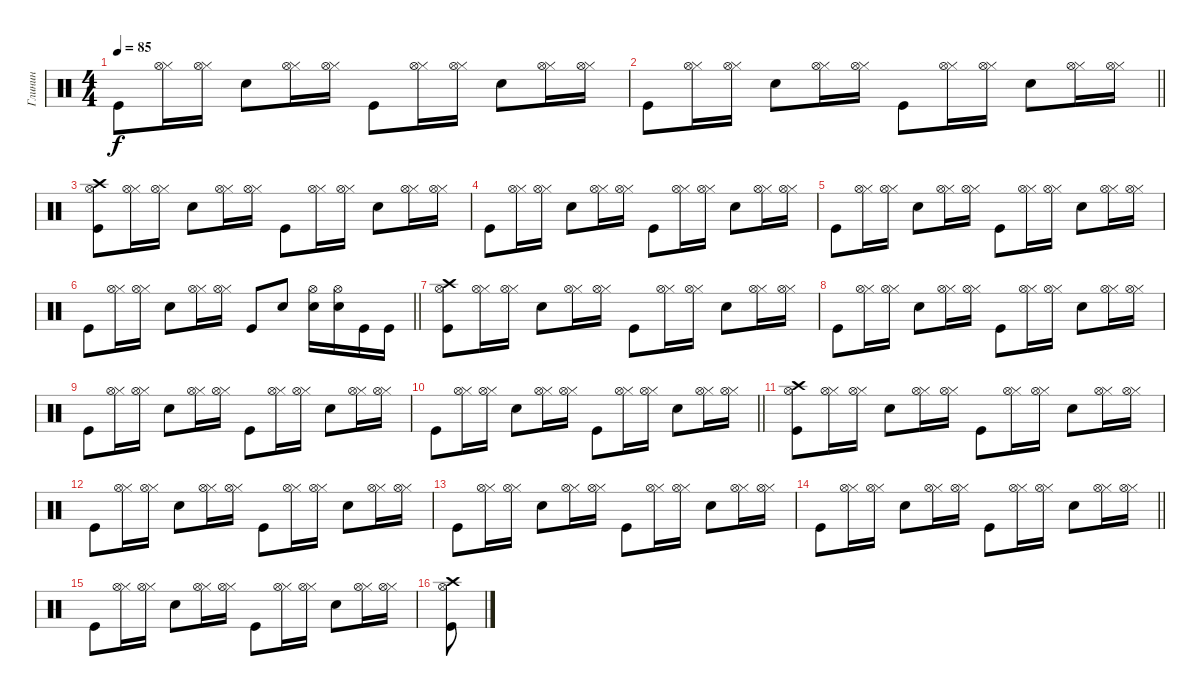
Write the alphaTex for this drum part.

\track ("Глинин" "Глинин") {instrument percussion}
\staff {score}
\articulation defaults
\ts (4 4)
\tempo 85
\clef neutral
\ks c "Kick (hit)".8{dy f}
("Hi-Hat (closed)" "Hi-Hat (open)").16 ("Hi-Hat (closed)" "Hi-Hat (open)").16 "Snare (hit) 2".8 ("Hi-Hat (closed)" "Hi-Hat (open)").16 ("Hi-Hat (closed)" "Hi-Hat (open)").16 "Kick (hit)".8 ("Hi-Hat (closed)" "Hi-Hat (open)").16 ("Hi-Hat (closed)" "Hi-Hat (open)").16 "Snare (hit) 2".8 ("Hi-Hat (closed)" "Hi-Hat (open)").16 ("Hi-Hat (closed)" "Hi-Hat (open)").16 |
\barLineRight lightlight "Kick (hit)".8
("Hi-Hat (closed)" "Hi-Hat (open)").16 ("Hi-Hat (closed)" "Hi-Hat (open)").16 "Snare (hit) 2".8 ("Hi-Hat (closed)" "Hi-Hat (open)").16 ("Hi-Hat (closed)" "Hi-Hat (open)").16 "Kick (hit)".8 ("Hi-Hat (closed)" "Hi-Hat (open)").16 ("Hi-Hat (closed)" "Hi-Hat (open)").16 "Snare (hit) 2".8 ("Hi-Hat (closed)" "Hi-Hat (open)").16 ("Hi-Hat (closed)" "Hi-Hat (open)").16 |
("Kick (hit)" "Hi-Hat (open)" "Crash high (hit)").8 ("Hi-Hat (closed)" "Hi-Hat (open)").16 ("Hi-Hat (closed)" "Hi-Hat (open)").16 "Snare (hit) 2".8 ("Hi-Hat (closed)" "Hi-Hat (open)").16 ("Hi-Hat (closed)" "Hi-Hat (open)").16 "Kick (hit)".8 ("Hi-Hat (closed)" "Hi-Hat (open)").16 ("Hi-Hat (closed)" "Hi-Hat (open)").16 "Snare (hit) 2".8 ("Hi-Hat (closed)" "Hi-Hat (open)").16 ("Hi-Hat (closed)" "Hi-Hat (open)").16 |
"Kick (hit)".8 ("Hi-Hat (closed)" "Hi-Hat (open)").16 ("Hi-Hat (closed)" "Hi-Hat (open)").16 "Snare (hit) 2".8 ("Hi-Hat (closed)" "Hi-Hat (open)").16 ("Hi-Hat (closed)" "Hi-Hat (open)").16 "Kick (hit)".8 ("Hi-Hat (closed)" "Hi-Hat (open)").16 ("Hi-Hat (closed)" "Hi-Hat (open)").16 "Snare (hit) 2".8 ("Hi-Hat (closed)" "Hi-Hat (open)").16 ("Hi-Hat (closed)" "Hi-Hat (open)").16 |
"Kick (hit)".8 ("Hi-Hat (closed)" "Hi-Hat (open)").16 ("Hi-Hat (closed)" "Hi-Hat (open)").16 "Snare (hit) 2".8 ("Hi-Hat (closed)" "Hi-Hat (open)").16 ("Hi-Hat (closed)" "Hi-Hat (open)").16 "Kick (hit)".8 ("Hi-Hat (closed)" "Hi-Hat (open)").16 ("Hi-Hat (closed)" "Hi-Hat (open)").16 "Snare (hit) 2".8 ("Hi-Hat (closed)" "Hi-Hat (open)").16 ("Hi-Hat (closed)" "Hi-Hat (open)").16 |
\barLineRight lightlight "Kick (hit)".8
("Hi-Hat (closed)" "Hi-Hat (open)").16 ("Hi-Hat (closed)" "Hi-Hat (open)").16 "Snare (hit) 2".8 ("Hi-Hat (closed)" "Hi-Hat (open)").16 ("Hi-Hat (closed)" "Hi-Hat (open)").16 "Kick (hit)".8 "Snare (hit) 2".8 ("Snare (hit) 2" "Hi-Hat (open)").16 ("Snare (hit) 2" "Hi-Hat (open)").16 "Kick (hit)".16 "Kick (hit)".16 |
("Kick (hit)" "Hi-Hat (open)" "Crash high (hit)").8 ("Hi-Hat (closed)" "Hi-Hat (open)").16 ("Hi-Hat (closed)" "Hi-Hat (open)").16 "Snare (hit) 2".8 ("Hi-Hat (closed)" "Hi-Hat (open)").16 ("Hi-Hat (closed)" "Hi-Hat (open)").16 "Kick (hit)".8 ("Hi-Hat (closed)" "Hi-Hat (open)").16 ("Hi-Hat (closed)" "Hi-Hat (open)").16 "Snare (hit) 2".8 ("Hi-Hat (closed)" "Hi-Hat (open)").16 ("Hi-Hat (closed)" "Hi-Hat (open)").16 |
"Kick (hit)".8 ("Hi-Hat (closed)" "Hi-Hat (open)").16 ("Hi-Hat (closed)" "Hi-Hat (open)").16 "Snare (hit) 2".8 ("Hi-Hat (closed)" "Hi-Hat (open)").16 ("Hi-Hat (closed)" "Hi-Hat (open)").16 "Kick (hit)".8 ("Hi-Hat (closed)" "Hi-Hat (open)").16 ("Hi-Hat (closed)" "Hi-Hat (open)").16 "Snare (hit) 2".8 ("Hi-Hat (closed)" "Hi-Hat (open)").16 ("Hi-Hat (closed)" "Hi-Hat (open)").16 |
"Kick (hit)".8 ("Hi-Hat (closed)" "Hi-Hat (open)").16 ("Hi-Hat (closed)" "Hi-Hat (open)").16 "Snare (hit) 2".8 ("Hi-Hat (closed)" "Hi-Hat (open)").16 ("Hi-Hat (closed)" "Hi-Hat (open)").16 "Kick (hit)".8 ("Hi-Hat (closed)" "Hi-Hat (open)").16 ("Hi-Hat (closed)" "Hi-Hat (open)").16 "Snare (hit) 2".8 ("Hi-Hat (closed)" "Hi-Hat (open)").16 ("Hi-Hat (closed)" "Hi-Hat (open)").16 |
\barLineRight lightlight "Kick (hit)".8
("Hi-Hat (closed)" "Hi-Hat (open)").16 ("Hi-Hat (closed)" "Hi-Hat (open)").16 "Snare (hit) 2".8 ("Hi-Hat (closed)" "Hi-Hat (open)").16 ("Hi-Hat (closed)" "Hi-Hat (open)").16 "Kick (hit)".8 ("Hi-Hat (closed)" "Hi-Hat (open)").16 ("Hi-Hat (closed)" "Hi-Hat (open)").16 "Snare (hit) 2".8 ("Hi-Hat (closed)" "Hi-Hat (open)").16 ("Hi-Hat (closed)" "Hi-Hat (open)").16 |
("Kick (hit)" "Hi-Hat (open)" "Crash high (hit)").8 ("Hi-Hat (closed)" "Hi-Hat (open)").16 ("Hi-Hat (closed)" "Hi-Hat (open)").16 "Snare (hit) 2".8 ("Hi-Hat (closed)" "Hi-Hat (open)").16 ("Hi-Hat (closed)" "Hi-Hat (open)").16 "Kick (hit)".8 ("Hi-Hat (closed)" "Hi-Hat (open)").16 ("Hi-Hat (closed)" "Hi-Hat (open)").16 "Snare (hit) 2".8 ("Hi-Hat (closed)" "Hi-Hat (open)").16 ("Hi-Hat (closed)" "Hi-Hat (open)").16 |
"Kick (hit)".8 ("Hi-Hat (closed)" "Hi-Hat (open)").16 ("Hi-Hat (closed)" "Hi-Hat (open)").16 "Snare (hit) 2".8 ("Hi-Hat (closed)" "Hi-Hat (open)").16 ("Hi-Hat (closed)" "Hi-Hat (open)").16 "Kick (hit)".8 ("Hi-Hat (closed)" "Hi-Hat (open)").16 ("Hi-Hat (closed)" "Hi-Hat (open)").16 "Snare (hit) 2".8 ("Hi-Hat (closed)" "Hi-Hat (open)").16 ("Hi-Hat (closed)" "Hi-Hat (open)").16 |
"Kick (hit)".8 ("Hi-Hat (closed)" "Hi-Hat (open)").16 ("Hi-Hat (closed)" "Hi-Hat (open)").16 "Snare (hit) 2".8 ("Hi-Hat (closed)" "Hi-Hat (open)").16 ("Hi-Hat (closed)" "Hi-Hat (open)").16 "Kick (hit)".8 ("Hi-Hat (closed)" "Hi-Hat (open)").16 ("Hi-Hat (closed)" "Hi-Hat (open)").16 "Snare (hit) 2".8 ("Hi-Hat (closed)" "Hi-Hat (open)").16 ("Hi-Hat (closed)" "Hi-Hat (open)").16 |
\barLineRight lightlight "Kick (hit)".8
("Hi-Hat (closed)" "Hi-Hat (open)").16 ("Hi-Hat (closed)" "Hi-Hat (open)").16 "Snare (hit) 2".8 ("Hi-Hat (closed)" "Hi-Hat (open)").16 ("Hi-Hat (closed)" "Hi-Hat (open)").16 "Kick (hit)".8 ("Hi-Hat (closed)" "Hi-Hat (open)").16 ("Hi-Hat (closed)" "Hi-Hat (open)").16 "Snare (hit) 2".8 ("Hi-Hat (closed)" "Hi-Hat (open)").16 ("Hi-Hat (closed)" "Hi-Hat (open)").16 |
"Kick (hit)".8 ("Hi-Hat (closed)" "Hi-Hat (open)").16 ("Hi-Hat (closed)" "Hi-Hat (open)").16 "Snare (hit) 2".8 ("Hi-Hat (closed)" "Hi-Hat (open)").16 ("Hi-Hat (closed)" "Hi-Hat (open)").16 "Kick (hit)".8 ("Hi-Hat (closed)" "Hi-Hat (open)").16 ("Hi-Hat (closed)" "Hi-Hat (open)").16 "Snare (hit) 2".8 ("Hi-Hat (closed)" "Hi-Hat (open)").16 ("Hi-Hat (closed)" "Hi-Hat (open)").16 |
("Kick (hit)" "Hi-Hat (open)" "Crash high (hit)").8
